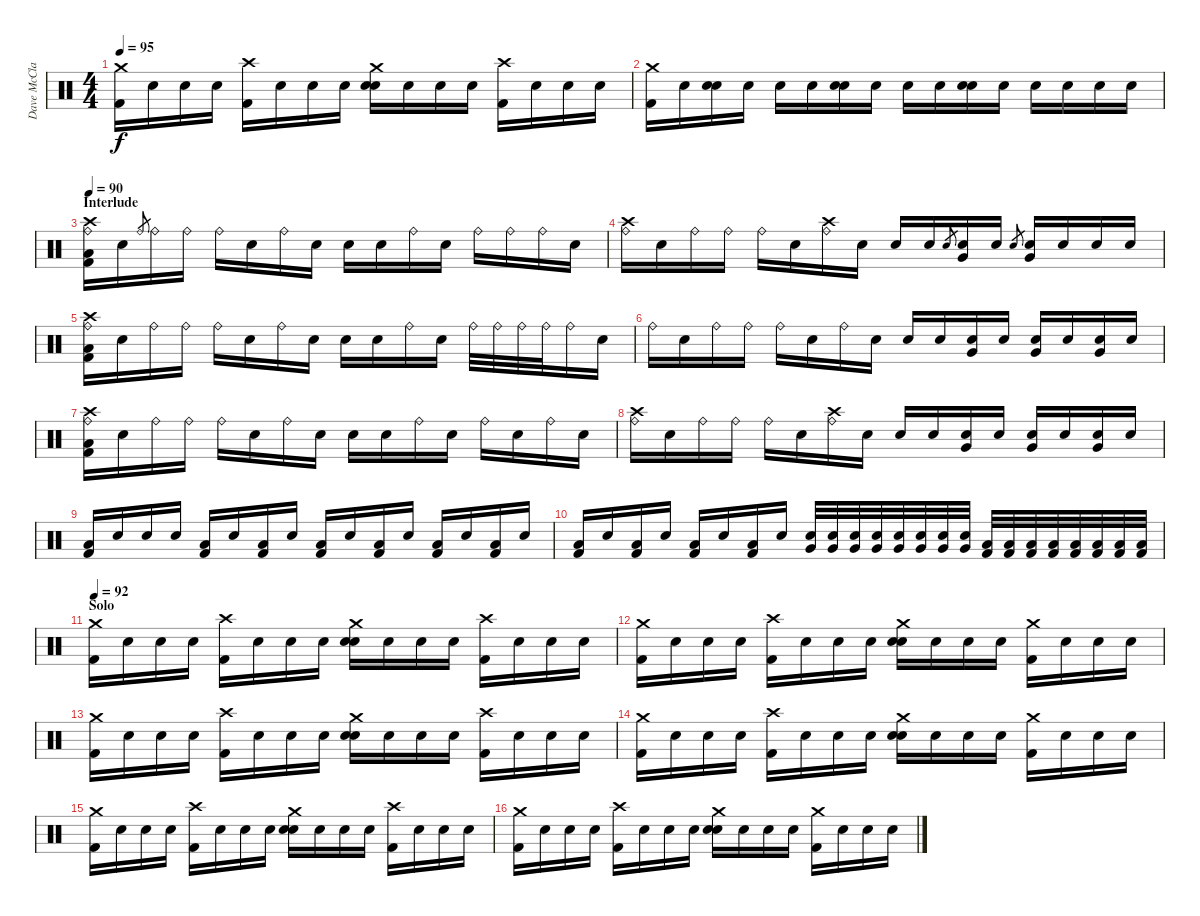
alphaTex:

\track ("Dave McClain - Drums" "Dave McCla") {instrument percussion}
\staff {score}
\articulation defaults
\ts (4 4)
\tempo 95
\clef neutral
\ks c
("Crash medium (hit)" "Kick (hit) 2").16{dy f} "Snare (hit)".16 "Snare (hit)".16 "Snare (hit)".16 ("Crash high (hit)" "Kick (hit) 2").16 "Snare (hit)".16 "Snare (hit)".16 "Snare (hit)".16 ("Crash medium (hit)" "Electric Snare (hit)" "Snare (hit) 2").16 "Snare (hit)".16 "Snare (hit)".16 "Snare (hit)".16 ("Crash high (hit)" "Kick (hit) 2").16 "Snare (hit)".16 "Snare (hit)".16 "Snare (hit)".16 |
("Crash medium (hit)" "Kick (hit) 2").16 "Snare (hit)".16 ("Electric Snare (hit)" "Snare (hit) 2").16 "Snare (hit)".16 "Snare (hit) 2".16 "Snare (hit)".16 ("Electric Snare (hit)" "Snare (hit) 2").16 "Snare (hit)".16 "Snare (hit) 2".16 "Snare (hit)".16 ("Electric Snare (hit)" "Snare (hit) 2").16 "Snare (hit)".16 "Snare (hit) 2".16 "Snare (hit) 2".16 "Snare (hit) 2".16 "Snare (hit) 2".16 |
\section ("" "Interlude")
\tempo 90
("Ride (bell)" "Crash high (hit)" "Low Floor Tom (hit)" "Kick (hit) 2").16 "Snare (hit)".16 "Ride (bell)".8{gr} "Ride (bell)".16 "Ride (bell)".16 "Ride (bell)".16 "Snare (hit)".16 "Ride (bell)".16 "Snare (hit)".16 "Snare (hit)".16 "Snare (hit)".16 "Ride (bell)".16 "Snare (hit)".16 "Ride (bell)".16 "Ride (bell)".16 "Ride (bell)".16 "Snare (hit)".16 |
("Ride (bell)" "Crash high (hit)").16 "Snare (hit)".16 "Ride (bell)".16 "Ride (bell)".16 "Ride (bell)".16 "Snare (hit)".16 ("Ride (bell)" "Crash high (hit)").16 "Snare (hit)".16 "Snare (hit)".16 "Snare (hit)".16 "Snare (hit) 2".8{gr} ("Very Low Tom (hit)" "Snare (hit) 2").16 "Snare (hit)".16 "Snare (hit) 2".8{gr} ("Very Low Tom (hit)" "Snare (hit) 2").16 "Snare (hit)".16 "Snare (hit)".16 "Snare (hit)".16 |
("Ride (bell)" "Crash high (hit)" "Low Floor Tom (hit)" "Kick (hit) 2").16 "Snare (hit)".16 "Ride (bell)".16 "Ride (bell)".16 "Ride (bell)".16 "Snare (hit)".16 "Ride (bell)".16 "Snare (hit)".16 "Snare (hit)".16 "Snare (hit)".16 "Ride (bell)".16 "Snare (hit)".16 "Ride (bell)".32 "Ride (bell)".32 "Ride (bell)".32 "Ride (bell)".32 "Ride (bell)".16 "Snare (hit)".16 |
"Ride (bell)".16 "Snare (hit)".16 "Ride (bell)".16 "Ride (bell)".16 "Ride (bell)".16 "Snare (hit)".16 "Ride (bell)".16 "Snare (hit)".16 "Snare (hit)".16 "Snare (hit)".16 ("Very Low Tom (hit)" "Snare (hit) 2").16 "Snare (hit)".16 ("Very Low Tom (hit)" "Snare (hit) 2").16 "Snare (hit)".16 ("Very Low Tom (hit)" "Snare (hit) 2").16 "Snare (hit)".16 |
("Ride (bell)" "Crash high (hit)" "Low Floor Tom (hit)" "Kick (hit) 2").16 "Snare (hit)".16 "Ride (bell)".16 "Ride (bell)".16 "Ride (bell)".16 "Snare (hit)".16 "Ride (bell)".16 "Snare (hit)".16 "Snare (hit)".16 "Snare (hit)".16 "Ride (bell)".16 "Snare (hit)".16 "Ride (bell)".16 "Snare (hit)".16 "Ride (bell)".16 "Snare (hit)".16 |
("Ride (bell)" "Crash high (hit)").16 "Snare (hit)".16 "Ride (bell)".16 "Ride (bell)".16 "Ride (bell)".16 "Snare (hit)".16 ("Ride (bell)" "Crash high (hit)").16 "Snare (hit)".16 "Snare (hit)".16 "Snare (hit)".16 ("Very Low Tom (hit)" "Snare (hit) 2").16 "Snare (hit)".16 ("Very Low Tom (hit)" "Snare (hit) 2").16 "Snare (hit)".16 ("Very Low Tom (hit)" "Snare (hit) 2").16 "Snare (hit)".16 |
("Low Floor Tom (hit)" "Kick (hit) 2").16 "Snare (hit)".16{volume 0 balance 8} "Snare (hit)".16{volume 16 balance 8} "Snare (hit)".16 ("Low Floor Tom (hit)" "Kick (hit) 2").16 "Snare (hit)".16 ("Low Floor Tom (hit)" "Kick (hit) 2").16 "Snare (hit)".16 ("Low Floor Tom (hit)" "Kick (hit) 2").16 "Snare (hit)".16 ("Low Floor Tom (hit)" "Kick (hit) 2").16 "Snare (hit)".16 ("Low Floor Tom (hit)" "Kick (hit) 2").16 "Snare (hit)".16 ("Low Floor Tom (hit)" "Kick (hit) 2").16 "Snare (hit)".16 |
("Low Floor Tom (hit)" "Kick (hit) 2").16 "Snare (hit)".16 ("Low Floor Tom (hit)" "Kick (hit) 2").16 "Snare (hit)".16 ("Low Floor Tom (hit)" "Kick (hit) 2").16 "Snare (hit)".16 ("Low Floor Tom (hit)" "Kick (hit) 2").16 "Snare (hit)".16 ("Very Low Tom (hit)" "Snare (hit) 2").32 ("Very Low Tom (hit)" "Snare (hit) 2").32 ("Very Low Tom (hit)" "Snare (hit) 2").32 ("Very Low Tom (hit)" "Snare (hit) 2").32 ("Very Low Tom (hit)" "Snare (hit) 2").32 ("Very Low Tom (hit)" "Snare (hit) 2").32 ("Very Low Tom (hit)" "Snare (hit) 2").32 ("Very Low Tom (hit)" "Snare (hit) 2").32 ("Low Floor Tom (hit)" "Kick (hit) 2").32 ("Low Floor Tom (hit)" "Kick (hit) 2").32 ("Low Floor Tom (hit)" "Kick (hit) 2").32 ("Low Floor Tom (hit)" "Kick (hit) 2").32 ("Low Floor Tom (hit)" "Kick (hit) 2").32 ("Low Floor Tom (hit)" "Kick (hit) 2").32 ("Low Floor Tom (hit)" "Kick (hit) 2").32 ("Low Floor Tom (hit)" "Kick (hit) 2").32 |
\section ("" "Solo")
\tempo 92
("Crash medium (hit)" "Kick (hit) 2").16{volume 16 balance 8} "Snare (hit)".16 "Snare (hit)".16 "Snare (hit)".16 ("Crash high (hit)" "Kick (hit) 2").16 "Snare (hit)".16 "Snare (hit)".16 "Snare (hit)".16 ("Crash medium (hit)" "Electric Snare (hit)" "Snare (hit) 2").16 "Snare (hit)".16 "Snare (hit)".16 "Snare (hit)".16 ("Crash high (hit)" "Kick (hit) 2").16 "Snare (hit)".16 "Snare (hit)".16 "Snare (hit)".16 |
("Crash medium (hit)" "Kick (hit) 2").16 "Snare (hit)".16 "Snare (hit)".16 "Snare (hit)".16 ("Crash high (hit)" "Kick (hit) 2").16 "Snare (hit)".16 "Snare (hit)".16 "Snare (hit)".16 ("Crash medium (hit)" "Electric Snare (hit)" "Snare (hit) 2").16 "Snare (hit)".16 "Snare (hit)".16 "Snare (hit)".16 ("Crash medium (hit)" "Kick (hit) 2").16 "Snare (hit)".16 "Snare (hit)".16 "Snare (hit)".16 |
("Crash medium (hit)" "Kick (hit) 2").16 "Snare (hit)".16 "Snare (hit)".16 "Snare (hit)".16 ("Crash high (hit)" "Kick (hit) 2").16 "Snare (hit)".16 "Snare (hit)".16 "Snare (hit)".16 ("Crash medium (hit)" "Electric Snare (hit)" "Snare (hit) 2").16 "Snare (hit)".16 "Snare (hit)".16 "Snare (hit)".16 ("Crash high (hit)" "Kick (hit) 2").16 "Snare (hit)".16 "Snare (hit)".16 "Snare (hit)".16 |
("Crash medium (hit)" "Kick (hit) 2").16 "Snare (hit)".16 "Snare (hit)".16 "Snare (hit)".16 ("Crash high (hit)" "Kick (hit) 2").16 "Snare (hit)".16 "Snare (hit)".16 "Snare (hit)".16 ("Crash medium (hit)" "Electric Snare (hit)" "Snare (hit) 2").16 "Snare (hit)".16 "Snare (hit)".16 "Snare (hit)".16 ("Crash medium (hit)" "Kick (hit) 2").16 "Snare (hit)".16 "Snare (hit)".16 "Snare (hit)".16 |
("Crash medium (hit)" "Kick (hit) 2").16 "Snare (hit)".16 "Snare (hit)".16 "Snare (hit)".16 ("Crash high (hit)" "Kick (hit) 2").16 "Snare (hit)".16 "Snare (hit)".16 "Snare (hit)".16 ("Crash medium (hit)" "Electric Snare (hit)" "Snare (hit) 2").16 "Snare (hit)".16 "Snare (hit)".16 "Snare (hit)".16 ("Crash high (hit)" "Kick (hit) 2").16 "Snare (hit)".16 "Snare (hit)".16 "Snare (hit)".16 |
("Crash medium (hit)" "Kick (hit) 2").16 "Snare (hit)".16 "Snare (hit)".16 "Snare (hit)".16 ("Crash high (hit)" "Kick (hit) 2").16 "Snare (hit)".16 "Snare (hit)".16 "Snare (hit)".16 ("Crash medium (hit)" "Electric Snare (hit)" "Snare (hit) 2").16 "Snare (hit)".16 "Snare (hit)".16 "Snare (hit)".16 ("Crash medium (hit)" "Kick (hit) 2").16 "Snare (hit)".16 "Snare (hit)".16 "Snare (hit)".16
